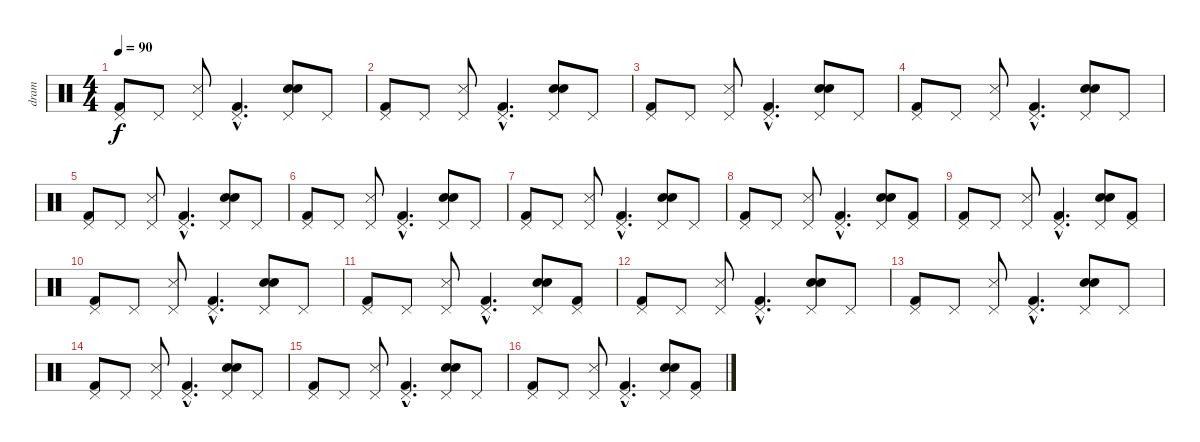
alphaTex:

\track ("dram" "dram") {instrument percussion}
\staff {score}
\articulation defaults
\ts (4 4)
\tempo 90
\clef neutral
\ks c
("Pedal Hi-Hat (hit)" "Kick (hit) 2").8{dy f} "Pedal Hi-Hat (hit)".8 ("Pedal Hi-Hat (hit)" "Snare (side stick) 3").8 ("Pedal Hi-Hat (hit)"{hac} "Kick (hit) 2"{hac}).4{d} ("Pedal Hi-Hat (hit)" "Electric Snare (hit)" "Hand Clap (hit)").8 "Pedal Hi-Hat (hit)".8 |
("Pedal Hi-Hat (hit)" "Kick (hit) 2").8 "Pedal Hi-Hat (hit)".8 ("Pedal Hi-Hat (hit)" "Snare (side stick) 3").8 ("Pedal Hi-Hat (hit)"{hac} "Kick (hit) 2"{hac}).4{d} ("Pedal Hi-Hat (hit)" "Electric Snare (hit)" "Hand Clap (hit)").8 "Pedal Hi-Hat (hit)".8 |
("Pedal Hi-Hat (hit)" "Kick (hit) 2").8 "Pedal Hi-Hat (hit)".8 ("Pedal Hi-Hat (hit)" "Snare (side stick) 3").8 ("Pedal Hi-Hat (hit)"{hac} "Kick (hit) 2"{hac}).4{d} ("Pedal Hi-Hat (hit)" "Electric Snare (hit)" "Hand Clap (hit)").8 "Pedal Hi-Hat (hit)".8 |
("Pedal Hi-Hat (hit)" "Kick (hit) 2").8 "Pedal Hi-Hat (hit)".8 ("Pedal Hi-Hat (hit)" "Snare (side stick) 3").8 ("Pedal Hi-Hat (hit)"{hac} "Kick (hit) 2"{hac}).4{d} ("Pedal Hi-Hat (hit)" "Electric Snare (hit)" "Hand Clap (hit)").8 "Pedal Hi-Hat (hit)".8 |
("Pedal Hi-Hat (hit)" "Kick (hit) 2").8 "Pedal Hi-Hat (hit)".8 ("Pedal Hi-Hat (hit)" "Snare (side stick) 3").8 ("Pedal Hi-Hat (hit)"{hac} "Kick (hit) 2"{hac}).4{d} ("Pedal Hi-Hat (hit)" "Electric Snare (hit)" "Hand Clap (hit)").8 "Pedal Hi-Hat (hit)".8 |
("Pedal Hi-Hat (hit)" "Kick (hit) 2").8 "Pedal Hi-Hat (hit)".8 ("Pedal Hi-Hat (hit)" "Snare (side stick) 3").8 ("Pedal Hi-Hat (hit)"{hac} "Kick (hit) 2"{hac}).4{d} ("Pedal Hi-Hat (hit)" "Electric Snare (hit)" "Hand Clap (hit)").8 "Pedal Hi-Hat (hit)".8 |
("Pedal Hi-Hat (hit)" "Kick (hit) 2").8 "Pedal Hi-Hat (hit)".8 ("Pedal Hi-Hat (hit)" "Snare (side stick) 3").8 ("Pedal Hi-Hat (hit)"{hac} "Kick (hit) 2"{hac}).4{d} ("Pedal Hi-Hat (hit)" "Electric Snare (hit)" "Hand Clap (hit)").8 "Pedal Hi-Hat (hit)".8 |
("Pedal Hi-Hat (hit)" "Kick (hit) 2").8 "Pedal Hi-Hat (hit)".8 ("Pedal Hi-Hat (hit)" "Snare (side stick) 3").8 ("Pedal Hi-Hat (hit)"{hac} "Kick (hit) 2"{hac}).4{d} ("Pedal Hi-Hat (hit)" "Electric Snare (hit)" "Hand Clap (hit)").8 ("Pedal Hi-Hat (hit)" "Kick (hit) 2").8 |
("Pedal Hi-Hat (hit)" "Kick (hit) 2").8 "Pedal Hi-Hat (hit)".8 ("Pedal Hi-Hat (hit)" "Snare (side stick) 3").8 ("Pedal Hi-Hat (hit)"{hac} "Kick (hit) 2"{hac}).4{d} ("Pedal Hi-Hat (hit)" "Electric Snare (hit)" "Hand Clap (hit)").8 ("Pedal Hi-Hat (hit)" "Kick (hit) 2").8 |
("Pedal Hi-Hat (hit)" "Kick (hit) 2").8 "Pedal Hi-Hat (hit)".8 ("Pedal Hi-Hat (hit)" "Snare (side stick) 3").8 ("Pedal Hi-Hat (hit)"{hac} "Kick (hit) 2"{hac}).4{d} ("Pedal Hi-Hat (hit)" "Electric Snare (hit)" "Hand Clap (hit)").8 "Pedal Hi-Hat (hit)".8 |
("Pedal Hi-Hat (hit)" "Kick (hit) 2").8 "Pedal Hi-Hat (hit)".8 ("Pedal Hi-Hat (hit)" "Snare (side stick) 3").8 ("Pedal Hi-Hat (hit)"{hac} "Kick (hit) 2"{hac}).4{d} ("Pedal Hi-Hat (hit)" "Electric Snare (hit)" "Hand Clap (hit)").8 ("Pedal Hi-Hat (hit)" "Kick (hit) 2").8 |
("Pedal Hi-Hat (hit)" "Kick (hit) 2").8 "Pedal Hi-Hat (hit)".8 ("Pedal Hi-Hat (hit)" "Snare (side stick) 3").8 ("Pedal Hi-Hat (hit)"{hac} "Kick (hit) 2"{hac}).4{d} ("Pedal Hi-Hat (hit)" "Electric Snare (hit)" "Hand Clap (hit)").8 "Pedal Hi-Hat (hit)".8 |
("Pedal Hi-Hat (hit)" "Kick (hit) 2").8 "Pedal Hi-Hat (hit)".8 ("Pedal Hi-Hat (hit)" "Snare (side stick) 3").8 ("Pedal Hi-Hat (hit)"{hac} "Kick (hit) 2"{hac}).4{d} ("Pedal Hi-Hat (hit)" "Electric Snare (hit)" "Hand Clap (hit)").8 "Pedal Hi-Hat (hit)".8 |
("Pedal Hi-Hat (hit)" "Kick (hit) 2").8 "Pedal Hi-Hat (hit)".8 ("Pedal Hi-Hat (hit)" "Snare (side stick) 3").8 ("Pedal Hi-Hat (hit)"{hac} "Kick (hit) 2"{hac}).4{d} ("Pedal Hi-Hat (hit)" "Electric Snare (hit)" "Hand Clap (hit)").8 "Pedal Hi-Hat (hit)".8 |
("Pedal Hi-Hat (hit)" "Kick (hit) 2").8 "Pedal Hi-Hat (hit)".8 ("Pedal Hi-Hat (hit)" "Snare (side stick) 3").8 ("Pedal Hi-Hat (hit)"{hac} "Kick (hit) 2"{hac}).4{d} ("Pedal Hi-Hat (hit)" "Electric Snare (hit)" "Hand Clap (hit)").8 "Pedal Hi-Hat (hit)".8 |
("Pedal Hi-Hat (hit)" "Kick (hit) 2").8 "Pedal Hi-Hat (hit)".8 ("Pedal Hi-Hat (hit)" "Snare (side stick) 3").8 ("Pedal Hi-Hat (hit)"{hac} "Kick (hit) 2"{hac}).4{d} ("Pedal Hi-Hat (hit)" "Electric Snare (hit)" "Hand Clap (hit)").8 ("Pedal Hi-Hat (hit)" "Kick (hit) 2").8
